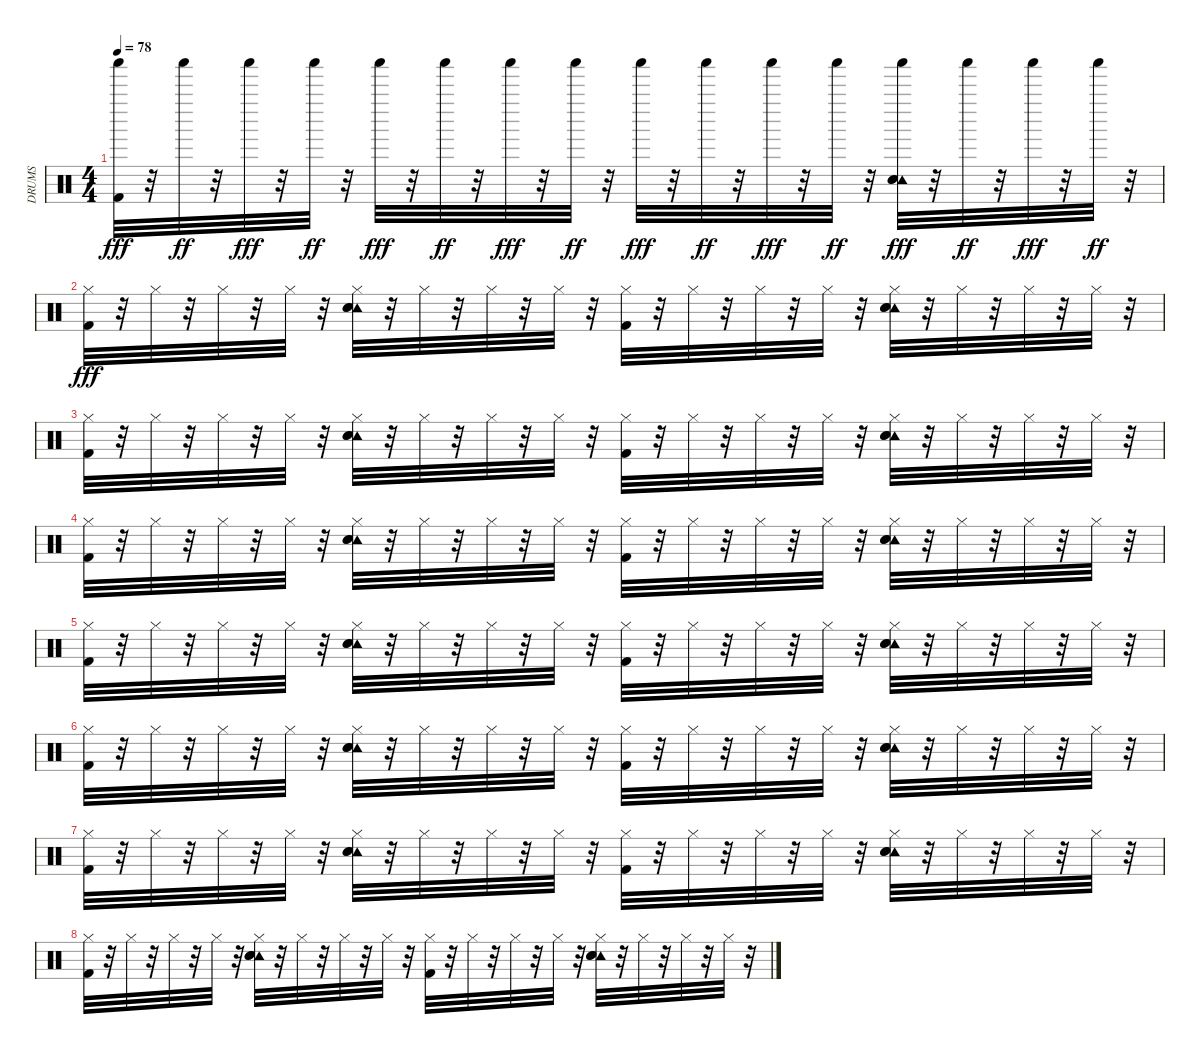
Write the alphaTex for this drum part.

\track ("DRUMS" "DRUMS") {instrument percussion}
\staff {score}
\articulation defaults
\ts (4 4)
\tempo 78
\clef neutral
\ks c
("Shaker (hit)" "Kick (hit) 2").32{dy fff} r.32 "Shaker (hit)".32{dy ff} r.32 "Shaker (hit)".32{dy fff} r.32 "Shaker (hit)".32{dy ff} r.32 "Shaker (hit)".32{dy fff} r.32 "Shaker (hit)".32{dy ff} r.32 "Shaker (hit)".32{dy fff} r.32 "Shaker (hit)".32{dy ff} r.32 "Shaker (hit)".32{dy fff} r.32 "Shaker (hit)".32{dy ff} r.32 "Shaker (hit)".32{dy fff} r.32 "Shaker (hit)".32{dy ff} r.32 ("Tambourine (hit)" "Snare (hit) 2" "Snare (hit)" "Shaker (hit)").32{dy fff} r.32 "Shaker (hit)".32{dy ff} r.32 "Shaker (hit)".32{dy fff} r.32 "Shaker (hit)".32{dy ff} r.32 |
("Hi-Hat (closed)" "Kick (hit) 2").32{dy fff} r.32 "Hi-Hat (closed)".32 r.32 "Hi-Hat (closed)".32 r.32 "Hi-Hat (closed)".32 r.32 ("Hi-Hat (closed)" "Tambourine (hit)" "Snare (hit)" "Snare (hit) 2").32 r.32 "Hi-Hat (closed)".32 r.32 "Hi-Hat (closed)".32 r.32 "Hi-Hat (closed)".32 r.32 ("Hi-Hat (closed)" "Kick (hit) 2").32 r.32 "Hi-Hat (closed)".32 r.32 "Hi-Hat (closed)".32 r.32 "Hi-Hat (closed)".32 r.32 ("Hi-Hat (closed)" "Tambourine (hit)" "Snare (hit) 2" "Snare (hit)").32 r.32 "Hi-Hat (closed)".32 r.32 "Hi-Hat (closed)".32 r.32 "Hi-Hat (closed)".32 r.32 |
("Hi-Hat (closed)" "Kick (hit) 2").32 r.32 "Hi-Hat (closed)".32 r.32 "Hi-Hat (closed)".32 r.32 "Hi-Hat (closed)".32 r.32 ("Hi-Hat (closed)" "Tambourine (hit)" "Snare (hit)" "Snare (hit) 2").32 r.32 "Hi-Hat (closed)".32 r.32 "Hi-Hat (closed)".32 r.32 "Hi-Hat (closed)".32 r.32 ("Hi-Hat (closed)" "Kick (hit) 2").32 r.32 "Hi-Hat (closed)".32 r.32 "Hi-Hat (closed)".32 r.32 "Hi-Hat (closed)".32 r.32 ("Hi-Hat (closed)" "Tambourine (hit)" "Snare (hit) 2" "Snare (hit)").32 r.32 "Hi-Hat (closed)".32 r.32 "Hi-Hat (closed)".32 r.32 "Hi-Hat (closed)".32 r.32 |
("Hi-Hat (closed)" "Kick (hit) 2").32 r.32 "Hi-Hat (closed)".32 r.32 "Hi-Hat (closed)".32 r.32 "Hi-Hat (closed)".32 r.32 ("Hi-Hat (closed)" "Tambourine (hit)" "Snare (hit)" "Snare (hit) 2").32 r.32 "Hi-Hat (closed)".32 r.32 "Hi-Hat (closed)".32 r.32 "Hi-Hat (closed)".32 r.32 ("Hi-Hat (closed)" "Kick (hit) 2").32 r.32 "Hi-Hat (closed)".32 r.32 "Hi-Hat (closed)".32 r.32 "Hi-Hat (closed)".32 r.32 ("Hi-Hat (closed)" "Tambourine (hit)" "Snare (hit) 2" "Snare (hit)").32 r.32 "Hi-Hat (closed)".32 r.32 "Hi-Hat (closed)".32 r.32 "Hi-Hat (closed)".32 r.32 |
("Hi-Hat (closed)" "Kick (hit) 2").32 r.32 "Hi-Hat (closed)".32 r.32 "Hi-Hat (closed)".32 r.32 "Hi-Hat (closed)".32 r.32 ("Hi-Hat (closed)" "Tambourine (hit)" "Snare (hit)" "Snare (hit) 2").32 r.32 "Hi-Hat (closed)".32 r.32 "Hi-Hat (closed)".32 r.32 "Hi-Hat (closed)".32 r.32 ("Hi-Hat (closed)" "Kick (hit) 2").32 r.32 "Hi-Hat (closed)".32 r.32 "Hi-Hat (closed)".32 r.32 "Hi-Hat (closed)".32 r.32 ("Hi-Hat (closed)" "Tambourine (hit)" "Snare (hit) 2" "Snare (hit)").32 r.32 "Hi-Hat (closed)".32 r.32 "Hi-Hat (closed)".32 r.32 "Hi-Hat (closed)".32 r.32 |
("Hi-Hat (closed)" "Kick (hit) 2").32 r.32 "Hi-Hat (closed)".32 r.32 "Hi-Hat (closed)".32 r.32 "Hi-Hat (closed)".32 r.32 ("Hi-Hat (closed)" "Tambourine (hit)" "Snare (hit)" "Snare (hit) 2").32 r.32 "Hi-Hat (closed)".32 r.32 "Hi-Hat (closed)".32 r.32 "Hi-Hat (closed)".32 r.32 ("Hi-Hat (closed)" "Kick (hit) 2").32 r.32 "Hi-Hat (closed)".32 r.32 "Hi-Hat (closed)".32 r.32 "Hi-Hat (closed)".32 r.32 ("Hi-Hat (closed)" "Tambourine (hit)" "Snare (hit) 2" "Snare (hit)").32 r.32 "Hi-Hat (closed)".32 r.32 "Hi-Hat (closed)".32 r.32 "Hi-Hat (closed)".32 r.32 |
("Hi-Hat (closed)" "Kick (hit) 2").32 r.32 "Hi-Hat (closed)".32 r.32 "Hi-Hat (closed)".32 r.32 "Hi-Hat (closed)".32 r.32 ("Hi-Hat (closed)" "Tambourine (hit)" "Snare (hit)" "Snare (hit) 2").32 r.32 "Hi-Hat (closed)".32 r.32 "Hi-Hat (closed)".32 r.32 "Hi-Hat (closed)".32 r.32 ("Hi-Hat (closed)" "Kick (hit) 2").32 r.32 "Hi-Hat (closed)".32 r.32 "Hi-Hat (closed)".32 r.32 "Hi-Hat (closed)".32 r.32 ("Hi-Hat (closed)" "Tambourine (hit)" "Snare (hit) 2" "Snare (hit)").32 r.32 "Hi-Hat (closed)".32 r.32 "Hi-Hat (closed)".32 r.32 "Hi-Hat (closed)".32 r.32 |
("Hi-Hat (closed)" "Kick (hit) 2").32 r.32 "Hi-Hat (closed)".32 r.32 "Hi-Hat (closed)".32 r.32 "Hi-Hat (closed)".32 r.32 ("Hi-Hat (closed)" "Tambourine (hit)" "Snare (hit)" "Snare (hit) 2").32 r.32 "Hi-Hat (closed)".32 r.32 "Hi-Hat (closed)".32 r.32 "Hi-Hat (closed)".32 r.32 ("Hi-Hat (closed)" "Kick (hit) 2").32 r.32 "Hi-Hat (closed)".32 r.32 "Hi-Hat (closed)".32 r.32 "Hi-Hat (closed)".32 r.32 ("Hi-Hat (closed)" "Tambourine (hit)" "Snare (hit) 2" "Snare (hit)").32 r.32 "Hi-Hat (closed)".32 r.32 "Hi-Hat (closed)".32 r.32 "Hi-Hat (closed)".32 r.32
